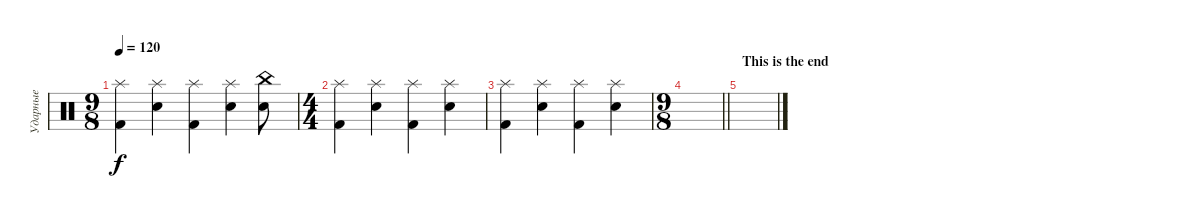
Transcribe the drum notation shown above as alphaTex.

\track ("Ударные" "Ударные") {instrument percussion}
\staff {score}
\articulation defaults
\ts (9 8)
\tempo 120
\clef neutral
\ks c
("Splash (hit)" "Kick (hit) 2").4{dy f} ("Splash (hit)" "Snare (hit) 2").4 ("Splash (hit)" "Kick (hit) 2").4 ("Splash (hit)" "Snare (hit) 2").4 ("China (hit)" "Snare (hit) 2").8 |
\ts (4 4)
("Splash (hit)" "Kick (hit) 2").4 ("Splash (hit)" "Snare (hit) 2").4 ("Splash (hit)" "Kick (hit) 2").4 ("Splash (hit)" "Snare (hit) 2").4 |
("Splash (hit)" "Kick (hit) 2").4 ("Splash (hit)" "Snare (hit) 2").4 ("Splash (hit)" "Kick (hit) 2").4 ("Splash (hit)" "Snare (hit) 2").4 |
\ts (9 8)
\barLineRight lightlight
|
\section ("" "This is the end")
